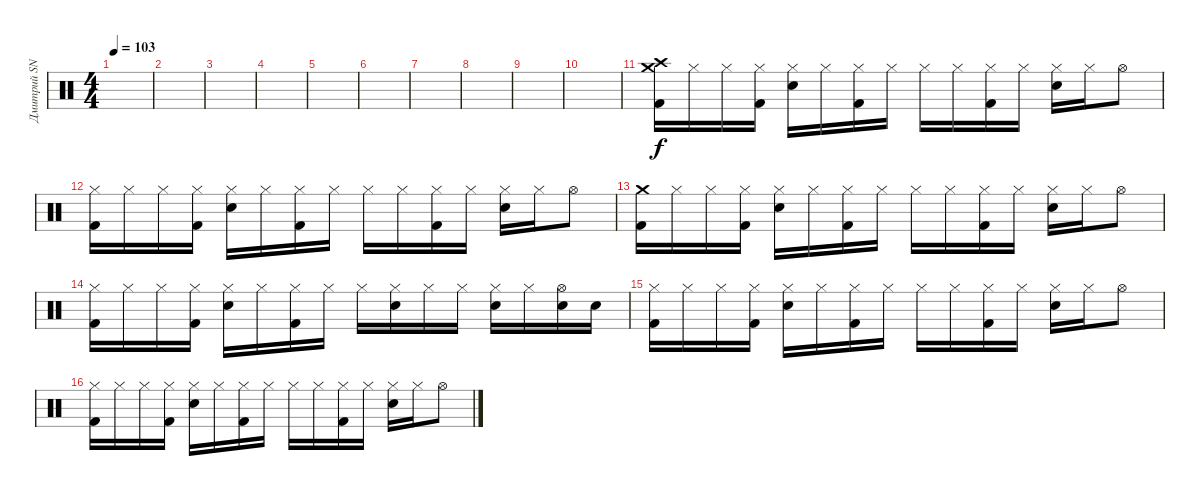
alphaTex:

\track ("Дмитрий SNAKE Хакимов" "Дмитрий SN") {instrument percussion}
\staff {score}
\articulation defaults
\ts (4 4)
\tempo 103
\clef neutral
\ks c
|
|
|
|
|
|
|
|
|
|
("Crash high (hit)" "Crash medium (hit)" "Kick (hit) 2").16 "Hi-Hat (closed)".16 "Hi-Hat (closed)".16 ("Hi-Hat (closed)" "Kick (hit) 2").16 ("Hi-Hat (closed)" "Electric Snare (hit)").16 "Hi-Hat (closed)".16 ("Hi-Hat (closed)" "Kick (hit) 2").16 "Hi-Hat (closed)".16 "Hi-Hat (closed)".16 "Hi-Hat (closed)".16 ("Hi-Hat (closed)" "Kick (hit) 2").16 "Hi-Hat (closed)".16 ("Hi-Hat (closed)" "Electric Snare (hit)").16 "Hi-Hat (closed)".16 "Hi-Hat (open)".8 |
("Hi-Hat (closed)" "Kick (hit) 2").16 "Hi-Hat (closed)".16 "Hi-Hat (closed)".16 ("Hi-Hat (closed)" "Kick (hit) 2").16 ("Hi-Hat (closed)" "Electric Snare (hit)").16 "Hi-Hat (closed)".16 ("Hi-Hat (closed)" "Kick (hit) 2").16 "Hi-Hat (closed)".16 "Hi-Hat (closed)".16 "Hi-Hat (closed)".16 ("Hi-Hat (closed)" "Kick (hit) 2").16 "Hi-Hat (closed)".16 ("Hi-Hat (closed)" "Electric Snare (hit)").16 "Hi-Hat (closed)".16 "Hi-Hat (open)".8 |
("Crash medium (hit)" "Kick (hit) 2").16 "Hi-Hat (closed)".16 "Hi-Hat (closed)".16 ("Hi-Hat (closed)" "Kick (hit) 2").16 ("Hi-Hat (closed)" "Electric Snare (hit)").16 "Hi-Hat (closed)".16 ("Hi-Hat (closed)" "Kick (hit) 2").16 "Hi-Hat (closed)".16 "Hi-Hat (closed)".16 "Hi-Hat (closed)".16 ("Hi-Hat (closed)" "Kick (hit) 2").16 "Hi-Hat (closed)".16 ("Hi-Hat (closed)" "Electric Snare (hit)").16 "Hi-Hat (closed)".16 "Hi-Hat (open)".8 |
("Hi-Hat (closed)" "Kick (hit) 2").16 "Hi-Hat (closed)".16 "Hi-Hat (closed)".16 ("Hi-Hat (closed)" "Kick (hit) 2").16 ("Hi-Hat (closed)" "Electric Snare (hit)").16 "Hi-Hat (closed)".16 ("Hi-Hat (closed)" "Kick (hit) 2").16 "Hi-Hat (closed)".16 "Hi-Hat (closed)".16 ("Hi-Hat (closed)" "Electric Snare (hit)").16 "Hi-Hat (closed)".16 "Hi-Hat (closed)".16 ("Hi-Hat (closed)" "Electric Snare (hit)").16 "Hi-Hat (closed)".16 ("Hi-Hat (open)" "Electric Snare (hit)").16 "Electric Snare (hit)".16 |
("Hi-Hat (closed)" "Kick (hit) 2").16 "Hi-Hat (closed)".16 "Hi-Hat (closed)".16 ("Hi-Hat (closed)" "Kick (hit) 2").16 ("Hi-Hat (closed)" "Electric Snare (hit)").16 "Hi-Hat (closed)".16 ("Hi-Hat (closed)" "Kick (hit) 2").16 "Hi-Hat (closed)".16 "Hi-Hat (closed)".16 "Hi-Hat (closed)".16 ("Hi-Hat (closed)" "Kick (hit) 2").16 "Hi-Hat (closed)".16 ("Hi-Hat (closed)" "Electric Snare (hit)").16 "Hi-Hat (closed)".16 "Hi-Hat (open)".8 |
("Hi-Hat (closed)" "Kick (hit) 2").16 "Hi-Hat (closed)".16 "Hi-Hat (closed)".16 ("Hi-Hat (closed)" "Kick (hit) 2").16 ("Hi-Hat (closed)" "Electric Snare (hit)").16 "Hi-Hat (closed)".16 ("Hi-Hat (closed)" "Kick (hit) 2").16 "Hi-Hat (closed)".16 "Hi-Hat (closed)".16 "Hi-Hat (closed)".16 ("Hi-Hat (closed)" "Kick (hit) 2").16 "Hi-Hat (closed)".16 ("Hi-Hat (closed)" "Electric Snare (hit)").16 "Hi-Hat (closed)".16 "Hi-Hat (open)".8
